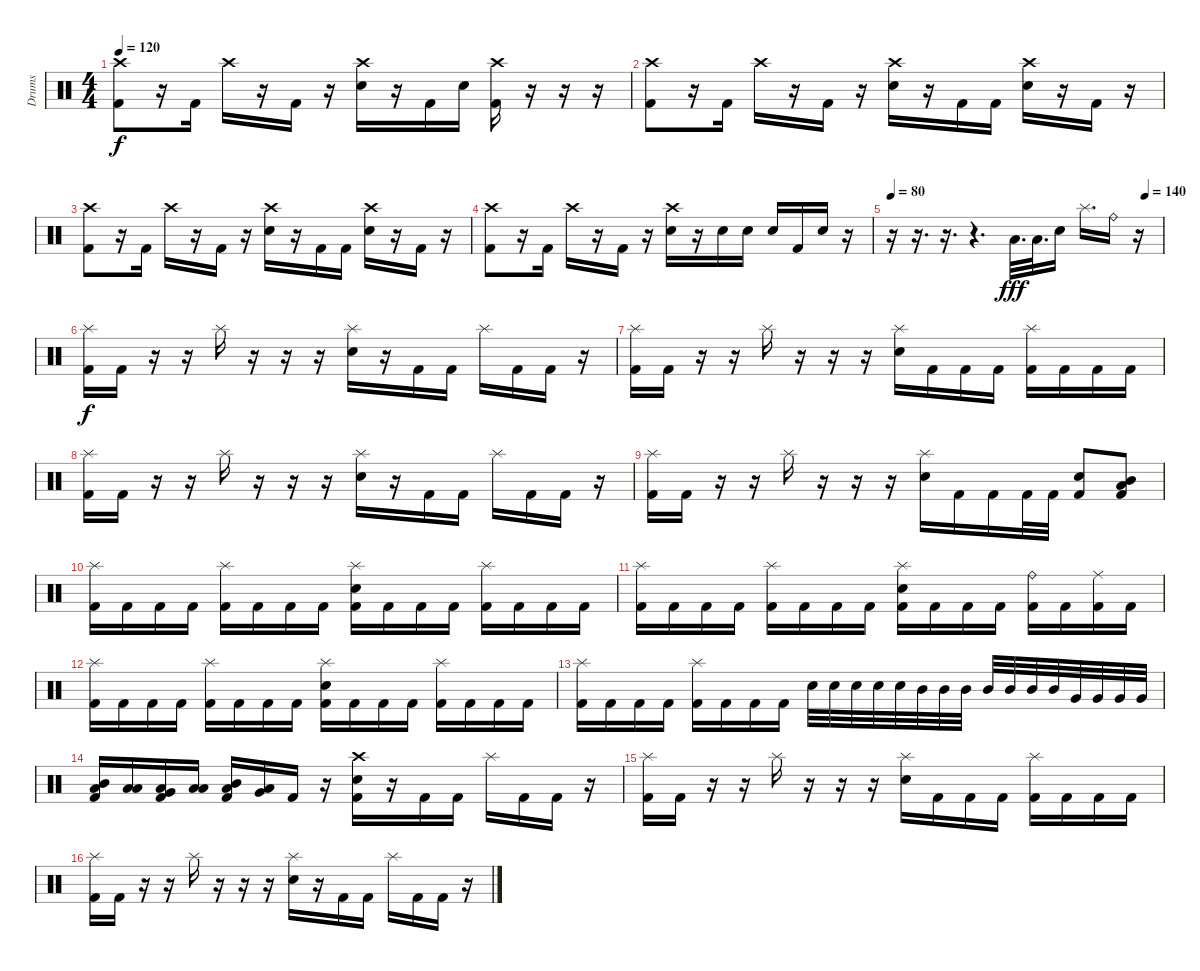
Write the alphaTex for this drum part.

\track ("Drums" "Drums") {instrument percussion}
\staff {score}
\articulation defaults
\ts (4 4)
\tempo 120
\clef neutral
\ks c
("Crash high (hit)" "Kick (hit) 2").8{dy f} r.16 "Kick (hit) 2".16 "Crash high (hit)".16 r.16 "Kick (hit) 2".16 r.16 ("Crash high (hit)" "Electric Snare (hit)").16 r.16 "Kick (hit) 2".16 "Electric Snare (hit)".16 ("Crash high (hit)" "Kick (hit) 2").16 r.16 r.16 r.16 |
("Crash high (hit)" "Kick (hit) 2").8 r.16 "Kick (hit) 2".16 "Crash high (hit)".16 r.16 "Kick (hit) 2".16 r.16 ("Crash high (hit)" "Electric Snare (hit)").16 r.16 "Kick (hit) 2".16 "Kick (hit) 2".16 ("Crash high (hit)" "Electric Snare (hit)").16 r.16 "Kick (hit) 2".16 r.16 |
("Crash high (hit)" "Kick (hit) 2").8 r.16 "Kick (hit) 2".16 "Crash high (hit)".16 r.16 "Kick (hit) 2".16 r.16 ("Crash high (hit)" "Electric Snare (hit)").16 r.16 "Kick (hit) 2".16 "Kick (hit) 2".16 ("Crash high (hit)" "Electric Snare (hit)").16 r.16 "Kick (hit) 2".16 r.16 |
("Crash high (hit)" "Kick (hit) 2").8 r.16 "Kick (hit) 2".16 "Crash high (hit)".16 r.16 "Kick (hit) 2".16 r.16 ("Crash high (hit)" "Electric Snare (hit)").16 r.16 "Electric Snare (hit)".16 "Electric Snare (hit)".16 "Electric Snare (hit)".16 "Kick (hit) 2".16 "Electric Snare (hit)".16 r.16 |
\tempo 80
\tempo (140 0.9375)
r.16 r.16{d} r.16{d} r.4{d} "Low Tom (hit)".32{d dy fff} "Low Tom (hit)".32{d} "Electric Snare (hit)".16 "Splash (hit)".16{d} "Ride (bell)".16 r.16 |
("Splash (hit)" "Kick (hit) 2").16{dy f} "Kick (hit) 2".16 r.16 r.16 "Splash (hit)".16 r.16 r.16 r.16 ("Splash (hit)" "Electric Snare (hit)").16 r.16 "Kick (hit) 2".16 "Kick (hit) 2".16 "Splash (hit)".16 "Kick (hit) 2".16 "Kick (hit) 2".16 r.16 |
("Splash (hit)" "Kick (hit) 2").16 "Kick (hit) 2".16 r.16 r.16 "Splash (hit)".16 r.16 r.16 r.16 ("Splash (hit)" "Electric Snare (hit)").16 "Kick (hit) 2".16 "Kick (hit) 2".16 "Kick (hit) 2".16 ("Splash (hit)" "Kick (hit) 2").16 "Kick (hit) 2".16 "Kick (hit) 2".16 "Kick (hit) 2".16 |
("Splash (hit)" "Kick (hit) 2").16 "Kick (hit) 2".16 r.16 r.16 "Splash (hit)".16 r.16 r.16 r.16 ("Splash (hit)" "Electric Snare (hit)").16 r.16 "Kick (hit) 2".16 "Kick (hit) 2".16 "Splash (hit)".16 "Kick (hit) 2".16 "Kick (hit) 2".16 r.16 |
("Splash (hit)" "Kick (hit) 2").16 "Kick (hit) 2".16 r.16 r.16 "Splash (hit)".16 r.16 r.16 r.16 ("Splash (hit)" "Electric Snare (hit)").16 "Kick (hit) 2".16 "Kick (hit) 2".16 "Kick (hit) 2".32 "Kick (hit) 2".32 ("Electric Snare (hit)" "Kick (hit) 2").8 ("Low Tom (hit)" "Mid Tom (hit)" "Kick (hit) 2").8 |
("Splash (hit)" "Kick (hit) 2").16 "Kick (hit) 2".16 "Kick (hit) 2".16 "Kick (hit) 2".16 ("Splash (hit)" "Kick (hit) 2").16 "Kick (hit) 2".16 "Kick (hit) 2".16 "Kick (hit) 2".16 ("Splash (hit)" "Electric Snare (hit)" "Kick (hit) 2").16 "Kick (hit) 2".16 "Kick (hit) 2".16 "Kick (hit) 2".16 ("Splash (hit)" "Kick (hit) 2").16 "Kick (hit) 2".16 "Kick (hit) 2".16 "Kick (hit) 2".16 |
("Splash (hit)" "Kick (hit) 2").16 "Kick (hit) 2".16 "Kick (hit) 2".16 "Kick (hit) 2".16 ("Splash (hit)" "Kick (hit) 2").16 "Kick (hit) 2".16 "Kick (hit) 2".16 "Kick (hit) 2".16 ("Splash (hit)" "Electric Snare (hit)" "Kick (hit) 2").16 "Kick (hit) 2".16 "Kick (hit) 2".16 "Kick (hit) 2".16 ("Ride (bell)" "Kick (hit) 2").16 "Kick (hit) 2".16 ("Ride (middle)" "Kick (hit) 2").16 "Kick (hit) 2".16 |
("Splash (hit)" "Kick (hit) 2").16 "Kick (hit) 2".16 "Kick (hit) 2".16 "Kick (hit) 2".16 ("Splash (hit)" "Kick (hit) 2").16 "Kick (hit) 2".16 "Kick (hit) 2".16 "Kick (hit) 2".16 ("Splash (hit)" "Electric Snare (hit)" "Kick (hit) 2").16 "Kick (hit) 2".16 "Kick (hit) 2".16 "Kick (hit) 2".16 ("Splash (hit)" "Kick (hit) 2").16 "Kick (hit) 2".16 "Kick (hit) 2".16 "Kick (hit) 2".16 |
("Splash (hit)" "Kick (hit) 2").16 "Kick (hit) 2".16 "Kick (hit) 2".16 "Kick (hit) 2".16 ("Splash (hit)" "Kick (hit) 2").16 "Kick (hit) 2".16 "Kick (hit) 2".16 "Kick (hit) 2".16 "Electric Snare (hit)".32 "Electric Snare (hit)".32 "Electric Snare (hit)".32 "Electric Snare (hit)".32 "Electric Snare (hit)".32 "Mid Tom (hit)".32 "Mid Tom (hit)".32 "Mid Tom (hit)".32 "Mid Tom (hit)".32 "Mid Tom (hit)".32 "Mid Tom (hit)".32 "Mid Tom (hit)".32 "Very Low Tom (hit)".32 "Very Low Tom (hit)".32 "Very Low Tom (hit)".32 "Very Low Tom (hit)".32 |
("Low Floor Tom (hit)" "Mid Tom (hit)" "Kick (hit) 2").16 ("Low Floor Tom (hit)" "Low Tom (hit)").16 ("Low Floor Tom (hit)" "Very Low Tom (hit)" "Kick (hit) 2").16 ("Low Floor Tom (hit)" "Low Floor Tom (hit)").16 ("Low Floor Tom (hit)" "Mid Tom (hit)" "Kick (hit) 2").16 ("Low Floor Tom (hit)" "Very Low Tom (hit)").16 "Kick (hit) 2".16 r.16 ("Crash high (hit)" "Electric Snare (hit)" "Kick (hit) 2").16 r.16 "Kick (hit) 2".16 "Kick (hit) 2".16 "Splash (hit)".16 "Kick (hit) 2".16 "Kick (hit) 2".16 r.16 |
("Splash (hit)" "Kick (hit) 2").16 "Kick (hit) 2".16 r.16 r.16 "Splash (hit)".16 r.16 r.16 r.16 ("Splash (hit)" "Electric Snare (hit)").16 "Kick (hit) 2".16 "Kick (hit) 2".16 "Kick (hit) 2".16 ("Splash (hit)" "Kick (hit) 2").16 "Kick (hit) 2".16 "Kick (hit) 2".16 "Kick (hit) 2".16 |
("Splash (hit)" "Kick (hit) 2").16 "Kick (hit) 2".16 r.16 r.16 "Splash (hit)".16 r.16 r.16 r.16 ("Splash (hit)" "Electric Snare (hit)").16 r.16 "Kick (hit) 2".16 "Kick (hit) 2".16 "Splash (hit)".16 "Kick (hit) 2".16 "Kick (hit) 2".16 r.16
